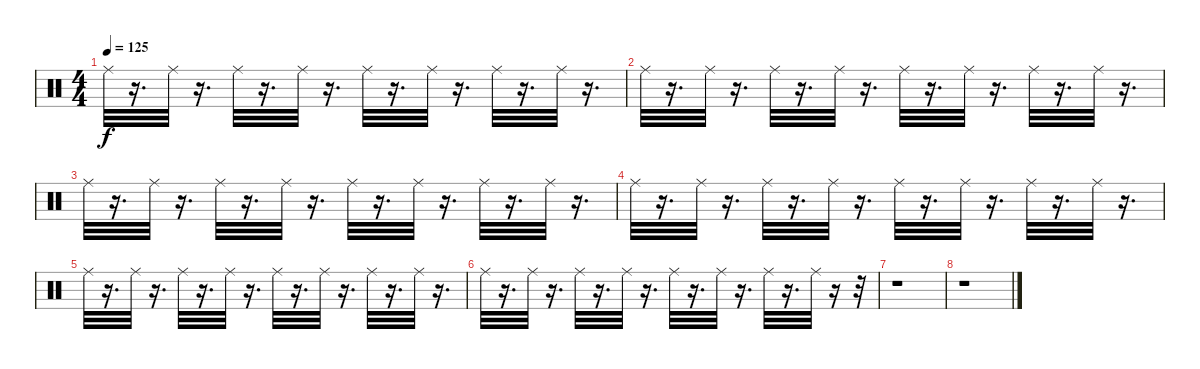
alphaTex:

\track "" {instrument percussion}
\staff {score}
\articulation defaults
\ts (4 4)
\tempo 125
\clef neutral
\ks c "Ride (middle)".32{dy f}
r.16{d} "Ride (middle)".32 r.16{d} "Ride (middle)".32 r.16{d} "Ride (middle)".32 r.16{d} "Ride (middle)".32 r.16{d} "Ride (middle)".32 r.16{d} "Ride (middle)".32 r.16{d} "Ride (middle)".32 r.16{d} |
"Ride (middle)".32 r.16{d} "Ride (middle)".32 r.16{d} "Ride (middle)".32 r.16{d} "Ride (middle)".32 r.16{d} "Ride (middle)".32 r.16{d} "Ride (middle)".32 r.16{d} "Ride (middle)".32 r.16{d} "Ride (middle)".32 r.16{d} |
"Ride (middle)".32 r.16{d} "Ride (middle)".32 r.16{d} "Ride (middle)".32 r.16{d} "Ride (middle)".32 r.16{d} "Ride (middle)".32 r.16{d} "Ride (middle)".32 r.16{d} "Ride (middle)".32 r.16{d} "Ride (middle)".32 r.16{d} |
"Ride (middle)".32 r.16{d} "Ride (middle)".32 r.16{d} "Ride (middle)".32 r.16{d} "Ride (middle)".32 r.16{d} "Ride (middle)".32 r.16{d} "Ride (middle)".32 r.16{d} "Ride (middle)".32 r.16{d} "Ride (middle)".32 r.16{d} |
"Ride (middle)".32 r.16{d} "Ride (middle)".32 r.16{d} "Ride (middle)".32 r.16{d} "Ride (middle)".32 r.16{d} "Ride (middle)".32 r.16{d} "Ride (middle)".32 r.16{d} "Ride (middle)".32 r.16{d} "Ride (middle)".32 r.16{d} |
"Ride (middle)".32 r.16{d} "Ride (middle)".32 r.16{d} "Ride (middle)".32 r.16{d} "Ride (middle)".32 r.16{d} "Ride (middle)".32 r.16{d} "Ride (middle)".32 r.16{d} "Ride (middle)".32 r.16{d} "Ride (middle)".32 r.16 r.32 |
r.1 |
r.1
